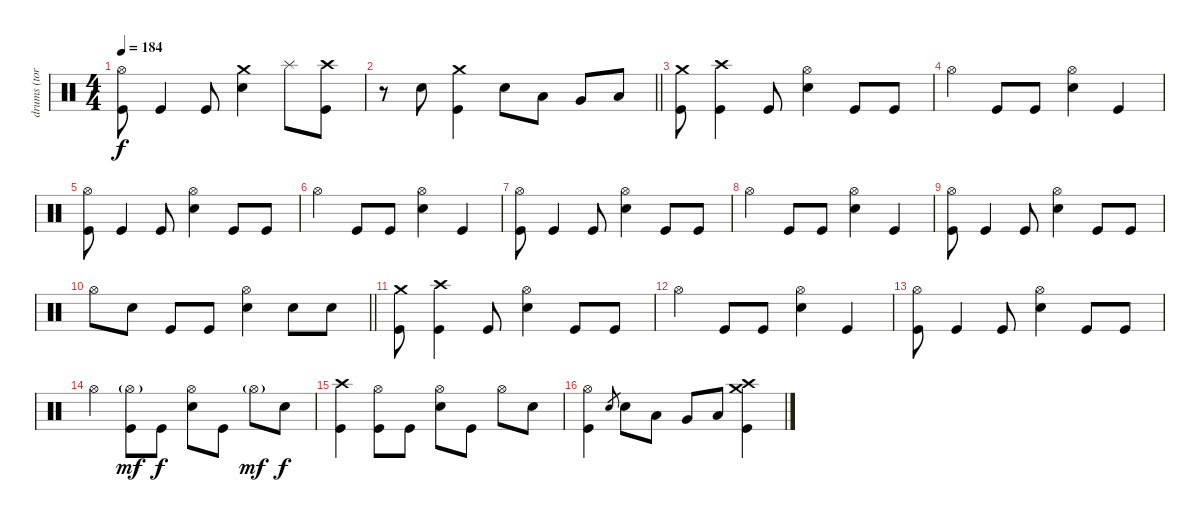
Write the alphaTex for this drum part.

\track ("drums (tora)" "drums (tor") {instrument percussion}
\staff {score}
\articulation defaults
\ts (4 4)
\tempo 184
\clef neutral
\ks c
("Hi-Hat (open)" "Kick (hit)").8{dy f} "Kick (hit)".4 "Kick (hit)".8 ("Crash medium (hit)" "Snare (hit) 2").4 "Splash (hit)".8 ("Crash high (hit)" "Kick (hit)").8 |
\barLineRight lightlight
r.8 "Snare (hit) 2".8 ("Crash medium (hit)" "Kick (hit)").4 "Snare (hit) 2".8 "Low Tom (hit)".8 "Very Low Tom (hit)".8 "Low Floor Tom (hit)".8 |
\section ("" "")
("Crash medium (hit)" "Kick (hit)").8 ("Crash high (hit)" "Kick (hit)").4 "Kick (hit)".8 ("Hi-Hat (open)" "Snare (hit) 2").4 "Kick (hit)".8 "Kick (hit)".8 |
"Hi-Hat (open)".4 "Kick (hit)".8 "Kick (hit)".8 ("Hi-Hat (open)" "Snare (hit) 2").4 "Kick (hit)".4 |
("Hi-Hat (open)" "Kick (hit)").8 "Kick (hit)".4 "Kick (hit)".8 ("Hi-Hat (open)" "Snare (hit) 2").4 "Kick (hit)".8 "Kick (hit)".8 |
"Hi-Hat (open)".4 "Kick (hit)".8 "Kick (hit)".8 ("Hi-Hat (open)" "Snare (hit) 2").4 "Kick (hit)".4 |
("Hi-Hat (open)" "Kick (hit)").8 "Kick (hit)".4 "Kick (hit)".8 ("Hi-Hat (open)" "Snare (hit) 2").4 "Kick (hit)".8 "Kick (hit)".8 |
"Hi-Hat (open)".4 "Kick (hit)".8 "Kick (hit)".8 ("Hi-Hat (open)" "Snare (hit) 2").4 "Kick (hit)".4 |
("Hi-Hat (open)" "Kick (hit)").8 "Kick (hit)".4 "Kick (hit)".8 ("Hi-Hat (open)" "Snare (hit) 2").4 "Kick (hit)".8 "Kick (hit)".8 |
\barLineRight lightlight "Hi-Hat (open)".8 "Snare (hit) 2".8 "Kick (hit)".8 "Kick (hit)".8
("Hi-Hat (open)" "Snare (hit) 2").4 "Snare (hit) 2".8 "Snare (hit) 2".8 |
("Crash medium (hit)" "Kick (hit)").8 ("Crash high (hit)" "Kick (hit)").4 "Kick (hit)".8 ("Hi-Hat (open)" "Snare (hit) 2").4 "Kick (hit)".8 "Kick (hit)".8 |
"Hi-Hat (open)".4 "Kick (hit)".8 "Kick (hit)".8 ("Hi-Hat (open)" "Snare (hit) 2").4 "Kick (hit)".4 |
("Hi-Hat (open)" "Kick (hit)").8 "Kick (hit)".4 "Kick (hit)".8 ("Hi-Hat (open)" "Snare (hit) 2").4 "Kick (hit)".8 "Kick (hit)".8 |
"Hi-Hat (open)".4 ("Hi-Hat (open)"{g} "Kick (hit)").8{dy mf} "Kick (hit)".8{dy f} ("Hi-Hat (open)" "Snare (hit) 2").8 "Kick (hit)".8 "Hi-Hat (open)"{g}.8{dy mf} "Snare (hit) 2".8{dy f} |
("Crash high (hit)" "Kick (hit)").4 ("Hi-Hat (open)" "Kick (hit)").8 "Kick (hit)".8 ("Hi-Hat (open)" "Snare (hit) 2").8 "Kick (hit)".8 "Hi-Hat (open)".8 "Snare (hit) 2".8 |
("Hi-Hat (open)" "Kick (hit)").4 "Snare (hit) 2"{x}.8{gr} "Snare (hit) 2".8 "Low Tom (hit)".8 "Very Low Tom (hit)".8 "Low Floor Tom (hit)".8 ("Crash high (hit)" "Crash medium (hit)" "Kick (hit)").4
